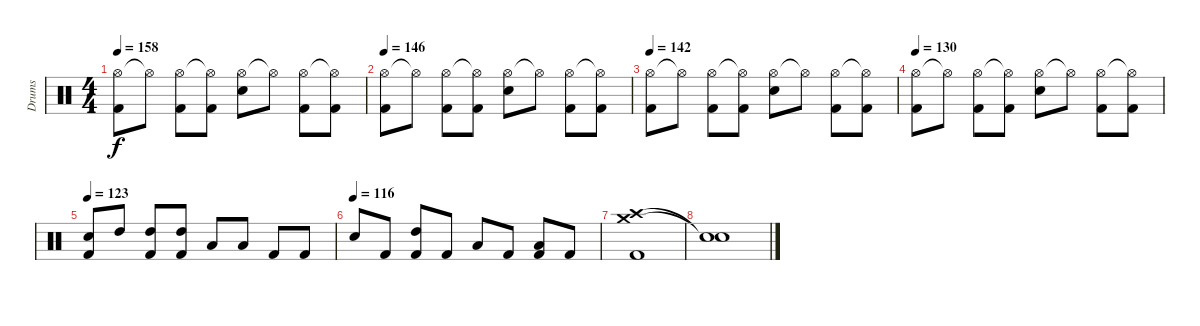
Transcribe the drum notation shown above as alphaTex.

\track ("Drums" "Drums") {instrument percussion}
\staff {score}
\articulation defaults
\ts (4 4)
\tempo 158
\clef neutral
\ks c
("Hi-Hat (open)" "Kick (hit) 2").8{dy f} "Hi-Hat (open)"{t}.8 ("Hi-Hat (open)" "Kick (hit) 2").8 ("Hi-Hat (open)"{t} "Kick (hit) 2").8 ("Hi-Hat (open)" "Snare (hit) 2").8 "Hi-Hat (open)"{t}.8 ("Hi-Hat (open)" "Kick (hit) 2").8 ("Hi-Hat (open)"{t} "Kick (hit) 2").8 |
\tempo 146
("Hi-Hat (open)" "Kick (hit) 2").8 "Hi-Hat (open)"{t}.8 ("Hi-Hat (open)" "Kick (hit) 2").8 ("Hi-Hat (open)"{t} "Kick (hit) 2").8 ("Hi-Hat (open)" "Snare (hit) 2").8 "Hi-Hat (open)"{t}.8 ("Hi-Hat (open)" "Kick (hit) 2").8 ("Hi-Hat (open)"{t} "Kick (hit) 2").8 |
\tempo 142
("Hi-Hat (open)" "Kick (hit) 2").8 "Hi-Hat (open)"{t}.8 ("Hi-Hat (open)" "Kick (hit) 2").8 ("Hi-Hat (open)"{t} "Kick (hit) 2").8 ("Hi-Hat (open)" "Snare (hit) 2").8 "Hi-Hat (open)"{t}.8 ("Hi-Hat (open)" "Kick (hit) 2").8 ("Hi-Hat (open)"{t} "Kick (hit) 2").8 |
\tempo 130
("Hi-Hat (open)" "Kick (hit) 2").8 "Hi-Hat (open)"{t}.8 ("Hi-Hat (open)" "Kick (hit) 2").8 ("Hi-Hat (open)"{t} "Kick (hit) 2").8 ("Hi-Hat (open)" "Snare (hit) 2").8 "Hi-Hat (open)"{t}.8 ("Hi-Hat (open)" "Kick (hit) 2").8 ("Hi-Hat (open)"{t} "Kick (hit) 2").8 |
\tempo 123
("Snare (hit) 2" "Kick (hit) 2").8 "High Tom (hit)".8 ("High Tom (hit)" "Kick (hit) 2").8 ("High Tom (hit)" "Kick (hit) 2").8 "Low Tom (hit)".8 "Low Tom (hit)".8 "Kick (hit) 2".8 "Kick (hit) 2".8 |
\tempo (116)
"Snare (hit) 2".8 "Kick (hit) 2".8 ("High Tom (hit)" "Kick (hit) 2").8 "Kick (hit) 2".8 "Low Tom (hit)".8 "Kick (hit) 2".8 ("Low Tom (hit)" "Kick (hit) 2").8 "Kick (hit) 2".8 |
("Crash high (hit)" "Crash medium (hit)" "Kick (hit) 2").1 |
("Snare (hit)"{t} "Snare (hit)"{t}).1
